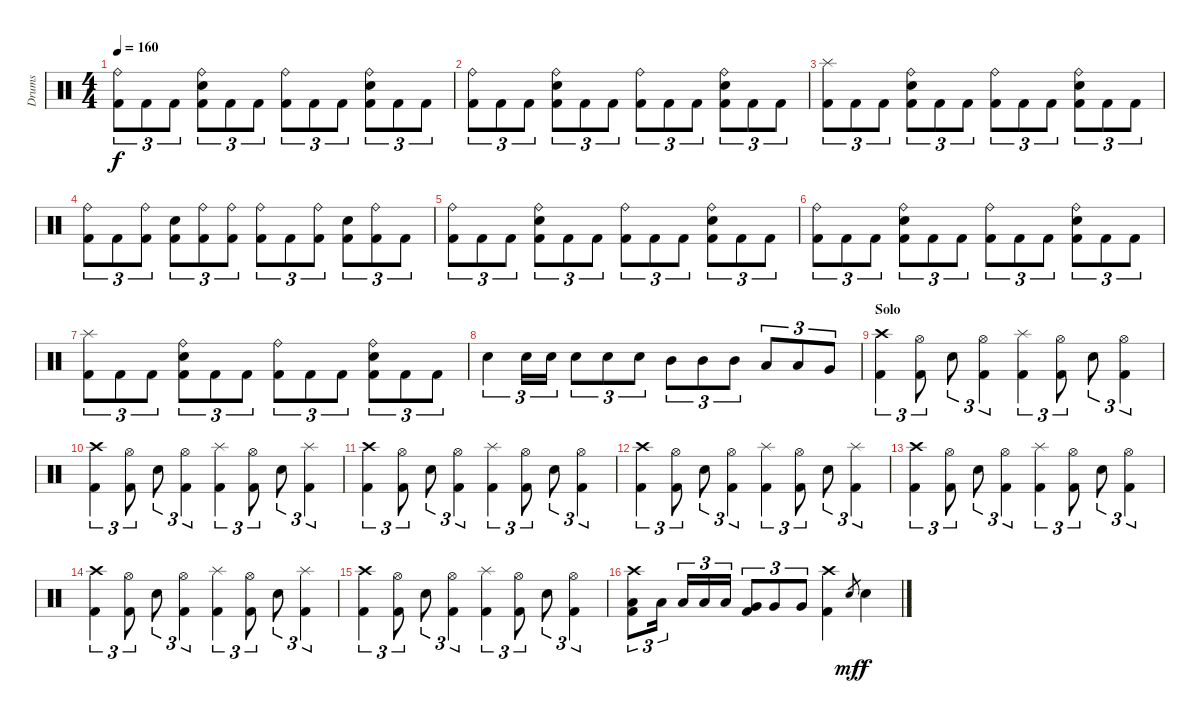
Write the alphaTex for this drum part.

\track ("Drums" "Drums") {instrument percussion}
\staff {score}
\articulation defaults
\ts (4 4)
\tempo 160
\clef neutral
\ks c
("Ride (bell)" "Kick (hit) 2").8{tu (3 2) dy f} "Kick (hit) 2".8{tu (3 2)} "Kick (hit) 2".8{tu (3 2)} ("Ride (bell)" "Snare (hit) 2" "Kick (hit) 2").8{tu (3 2)} "Kick (hit) 2".8{tu (3 2)} "Kick (hit) 2".8{tu (3 2)} ("Ride (bell)" "Kick (hit) 2").8{tu (3 2)} "Kick (hit) 2".8{tu (3 2)} "Kick (hit) 2".8{tu (3 2)} ("Ride (bell)" "Snare (hit) 2" "Kick (hit) 2").8{tu (3 2)} "Kick (hit) 2".8{tu (3 2)} "Kick (hit) 2".8{tu (3 2)} |
("Ride (bell)" "Kick (hit) 2").8{tu (3 2)} "Kick (hit) 2".8{tu (3 2)} "Kick (hit) 2".8{tu (3 2)} ("Ride (bell)" "Snare (hit) 2" "Kick (hit) 2").8{tu (3 2)} "Kick (hit) 2".8{tu (3 2)} "Kick (hit) 2".8{tu (3 2)} ("Ride (bell)" "Kick (hit) 2").8{tu (3 2)} "Kick (hit) 2".8{tu (3 2)} "Kick (hit) 2".8{tu (3 2)} ("Ride (bell)" "Snare (hit) 2" "Kick (hit) 2").8{tu (3 2)} "Kick (hit) 2".8{tu (3 2)} "Kick (hit) 2".8{tu (3 2)} |
("Splash (hit)" "Kick (hit) 2").8{tu (3 2)} "Kick (hit) 2".8{tu (3 2)} "Kick (hit) 2".8{tu (3 2)} ("Ride (bell)" "Snare (hit) 2" "Kick (hit) 2").8{tu (3 2)} "Kick (hit) 2".8{tu (3 2)} "Kick (hit) 2".8{tu (3 2)} ("Ride (bell)" "Kick (hit) 2").8{tu (3 2)} "Kick (hit) 2".8{tu (3 2)} "Kick (hit) 2".8{tu (3 2)} ("Ride (bell)" "Snare (hit) 2" "Kick (hit) 2").8{tu (3 2)} "Kick (hit) 2".8{tu (3 2)} "Kick (hit) 2".8{tu (3 2)} |
("Ride (bell)" "Kick (hit) 2").8{tu (3 2)} "Kick (hit) 2".8{tu (3 2)} ("Ride (bell)" "Kick (hit) 2").8{tu (3 2)} ("Snare (hit) 2" "Kick (hit) 2").8{tu (3 2)} ("Ride (bell)" "Kick (hit) 2").8{tu (3 2)} ("Ride (bell)" "Kick (hit) 2").8{tu (3 2)} ("Ride (bell)" "Kick (hit) 2").8{tu (3 2)} "Kick (hit) 2".8{tu (3 2)} ("Ride (bell)" "Kick (hit) 2").8{tu (3 2)} ("Snare (hit) 2" "Kick (hit) 2").8{tu (3 2)} ("Ride (bell)" "Kick (hit) 2").8{tu (3 2)} "Kick (hit) 2".8{tu (3 2)} |
("Ride (bell)" "Kick (hit) 2").8{tu (3 2)} "Kick (hit) 2".8{tu (3 2)} "Kick (hit) 2".8{tu (3 2)} ("Ride (bell)" "Snare (hit) 2" "Kick (hit) 2").8{tu (3 2)} "Kick (hit) 2".8{tu (3 2)} "Kick (hit) 2".8{tu (3 2)} ("Ride (bell)" "Kick (hit) 2").8{tu (3 2)} "Kick (hit) 2".8{tu (3 2)} "Kick (hit) 2".8{tu (3 2)} ("Ride (bell)" "Snare (hit) 2" "Kick (hit) 2").8{tu (3 2)} "Kick (hit) 2".8{tu (3 2)} "Kick (hit) 2".8{tu (3 2)} |
("Ride (bell)" "Kick (hit) 2").8{tu (3 2)} "Kick (hit) 2".8{tu (3 2)} "Kick (hit) 2".8{tu (3 2)} ("Ride (bell)" "Snare (hit) 2" "Kick (hit) 2").8{tu (3 2)} "Kick (hit) 2".8{tu (3 2)} "Kick (hit) 2".8{tu (3 2)} ("Ride (bell)" "Kick (hit) 2").8{tu (3 2)} "Kick (hit) 2".8{tu (3 2)} "Kick (hit) 2".8{tu (3 2)} ("Ride (bell)" "Snare (hit) 2" "Kick (hit) 2").8{tu (3 2)} "Kick (hit) 2".8{tu (3 2)} "Kick (hit) 2".8{tu (3 2)} |
("Splash (hit)" "Kick (hit) 2").8{tu (3 2)} "Kick (hit) 2".8{tu (3 2)} "Kick (hit) 2".8{tu (3 2)} ("Ride (bell)" "Snare (hit) 2" "Kick (hit) 2").8{tu (3 2)} "Kick (hit) 2".8{tu (3 2)} "Kick (hit) 2".8{tu (3 2)} ("Ride (bell)" "Kick (hit) 2").8{tu (3 2)} "Kick (hit) 2".8{tu (3 2)} "Kick (hit) 2".8{tu (3 2)} ("Ride (bell)" "Snare (hit) 2" "Kick (hit) 2").8{tu (3 2)} "Kick (hit) 2".8{tu (3 2)} "Kick (hit) 2".8{tu (3 2)} |
"Snare (hit) 2".4{tu (3 2)} "Snare (hit) 2".16{tu (3 2)} "Snare (hit) 2".16{tu (3 2)} "Snare (hit) 2".8{tu (3 2)} "Snare (hit) 2".8{tu (3 2)} "Snare (hit) 2".8{tu (3 2)} "Mid Tom (hit)".8{tu (3 2)} "Mid Tom (hit)".8{tu (3 2)} "Mid Tom (hit)".8{tu (3 2)} "Low Tom (hit)".8{tu (3 2)} "Low Tom (hit)".8{tu (3 2)} "Very Low Tom (hit)".8{tu (3 2)} |
\section ("" "Solo")
("Crash high (hit)" "Kick (hit) 2").4{tu (3 2)} ("Hi-Hat (open)" "Kick (hit) 2").8{tu (3 2)} "Snare (hit) 2".8{tu (3 2)} ("Hi-Hat (open)" "Kick (hit) 2").4{tu (3 2)} ("Splash (hit)" "Kick (hit) 2").4{tu (3 2)} ("Hi-Hat (open)" "Kick (hit) 2").8{tu (3 2)} "Snare (hit) 2".8{tu (3 2)} ("Hi-Hat (open)" "Kick (hit) 2").4{tu (3 2)} |
("Crash high (hit)" "Kick (hit) 2").4{tu (3 2)} ("Hi-Hat (open)" "Kick (hit) 2").8{tu (3 2)} "Snare (hit) 2".8{tu (3 2)} ("Hi-Hat (open)" "Kick (hit) 2").4{tu (3 2)} ("Splash (hit)" "Kick (hit) 2").4{tu (3 2)} ("Hi-Hat (open)" "Kick (hit) 2").8{tu (3 2)} "Snare (hit) 2".8{tu (3 2)} ("Splash (hit)" "Kick (hit) 2").4{tu (3 2)} |
("Crash high (hit)" "Kick (hit) 2").4{tu (3 2)} ("Hi-Hat (open)" "Kick (hit) 2").8{tu (3 2)} "Snare (hit) 2".8{tu (3 2)} ("Hi-Hat (open)" "Kick (hit) 2").4{tu (3 2)} ("Splash (hit)" "Kick (hit) 2").4{tu (3 2)} ("Hi-Hat (open)" "Kick (hit) 2").8{tu (3 2)} "Snare (hit) 2".8{tu (3 2)} ("Hi-Hat (open)" "Kick (hit) 2").4{tu (3 2)} |
("Crash high (hit)" "Kick (hit) 2").4{tu (3 2)} ("Hi-Hat (open)" "Kick (hit) 2").8{tu (3 2)} "Snare (hit) 2".8{tu (3 2)} ("Hi-Hat (open)" "Kick (hit) 2").4{tu (3 2)} ("Splash (hit)" "Kick (hit) 2").4{tu (3 2)} ("Hi-Hat (open)" "Kick (hit) 2").8{tu (3 2)} "Snare (hit) 2".8{tu (3 2)} ("Splash (hit)" "Kick (hit) 2").4{tu (3 2)} |
("Crash high (hit)" "Kick (hit) 2").4{tu (3 2)} ("Hi-Hat (open)" "Kick (hit) 2").8{tu (3 2)} "Snare (hit) 2".8{tu (3 2)} ("Hi-Hat (open)" "Kick (hit) 2").4{tu (3 2)} ("Splash (hit)" "Kick (hit) 2").4{tu (3 2)} ("Hi-Hat (open)" "Kick (hit) 2").8{tu (3 2)} "Snare (hit) 2".8{tu (3 2)} ("Hi-Hat (open)" "Kick (hit) 2").4{tu (3 2)} |
("Crash high (hit)" "Kick (hit) 2").4{tu (3 2)} ("Hi-Hat (open)" "Kick (hit) 2").8{tu (3 2)} "Snare (hit) 2".8{tu (3 2)} ("Hi-Hat (open)" "Kick (hit) 2").4{tu (3 2)} ("Splash (hit)" "Kick (hit) 2").4{tu (3 2)} ("Hi-Hat (open)" "Kick (hit) 2").8{tu (3 2)} "Snare (hit) 2".8{tu (3 2)} ("Splash (hit)" "Kick (hit) 2").4{tu (3 2)} |
("Crash high (hit)" "Kick (hit) 2").4{tu (3 2)} ("Hi-Hat (open)" "Kick (hit) 2").8{tu (3 2)} "Snare (hit) 2".8{tu (3 2)} ("Hi-Hat (open)" "Kick (hit) 2").4{tu (3 2)} ("Splash (hit)" "Kick (hit) 2").4{tu (3 2)} ("Hi-Hat (open)" "Kick (hit) 2").8{tu (3 2)} "Snare (hit) 2".8{tu (3 2)} ("Hi-Hat (open)" "Kick (hit) 2").4{tu (3 2)} |
("Crash high (hit)" "Low Tom (hit)" "Kick (hit) 2").8{tu (3 2)} "Low Tom (hit)".16{tu (3 2)} "Low Tom (hit)".16{tu (3 2)} "Low Tom (hit)".16{tu (3 2)} "Low Tom (hit)".16{tu (3 2)} ("Very Low Tom (hit)" "Kick (hit) 2").8{tu (3 2)} "Very Low Tom (hit)".8{tu (3 2)} "Very Low Tom (hit)".8{tu (3 2)} ("Crash high (hit)" "Kick (hit) 2").4 "Snare (hit) 2".8{gr dy mf} "Snare (hit) 2".4{dy f}
